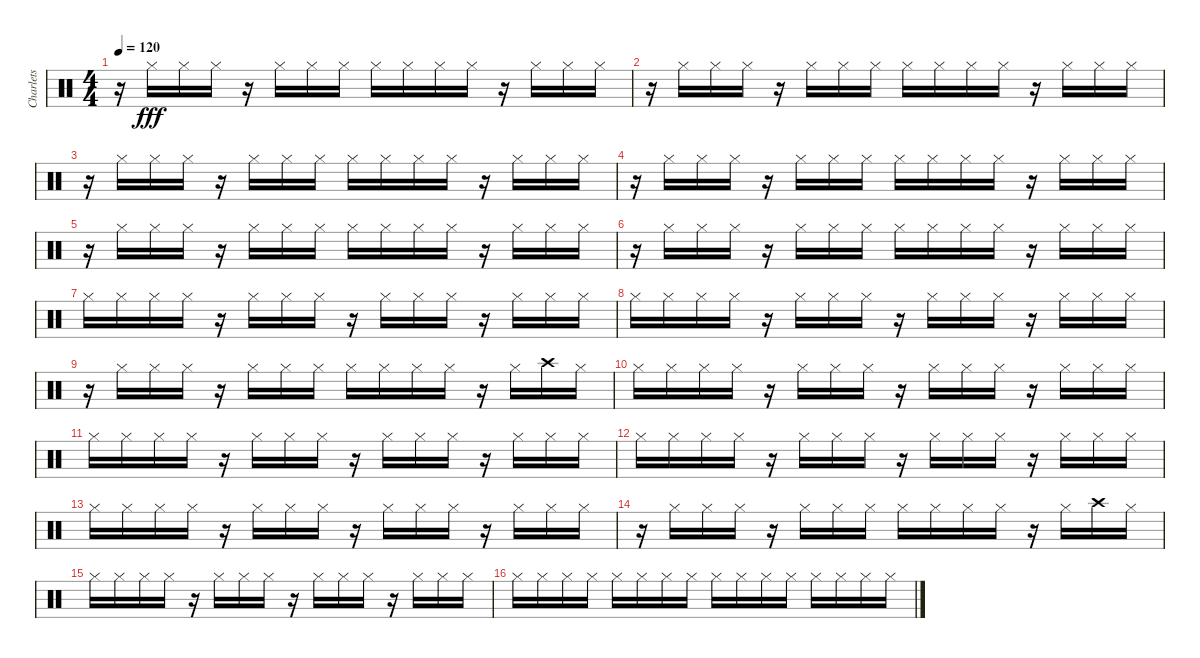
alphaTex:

\track ("Charlets" "Charlets") {instrument percussion}
\staff {score}
\articulation defaults
\ts (4 4)
\tempo 120
\clef neutral
\ks c
r.16{dy fff} "Hi-Hat (closed)".16 "Hi-Hat (closed)".16 "Hi-Hat (closed)".16 r.16 "Hi-Hat (closed)".16 "Hi-Hat (closed)".16 "Hi-Hat (closed)".16 "Hi-Hat (closed)".16 "Hi-Hat (closed)".16 "Hi-Hat (closed)".16 "Hi-Hat (closed)".16 r.16 "Hi-Hat (closed)".16 "Hi-Hat (closed)".16 "Hi-Hat (closed)".16 |
r.16 "Hi-Hat (closed)".16 "Hi-Hat (closed)".16 "Hi-Hat (closed)".16 r.16 "Hi-Hat (closed)".16 "Hi-Hat (closed)".16 "Hi-Hat (closed)".16 "Hi-Hat (closed)".16 "Hi-Hat (closed)".16 "Hi-Hat (closed)".16 "Hi-Hat (closed)".16 r.16 "Hi-Hat (closed)".16 "Hi-Hat (closed)".16 "Hi-Hat (closed)".16 |
r.16 "Hi-Hat (closed)".16 "Hi-Hat (closed)".16 "Hi-Hat (closed)".16 r.16 "Hi-Hat (closed)".16 "Hi-Hat (closed)".16 "Hi-Hat (closed)".16 "Hi-Hat (closed)".16 "Hi-Hat (closed)".16 "Hi-Hat (closed)".16 "Hi-Hat (closed)".16 r.16 "Hi-Hat (closed)".16 "Hi-Hat (closed)".16 "Hi-Hat (closed)".16 |
r.16 "Hi-Hat (closed)".16 "Hi-Hat (closed)".16 "Hi-Hat (closed)".16 r.16 "Hi-Hat (closed)".16 "Hi-Hat (closed)".16 "Hi-Hat (closed)".16 "Hi-Hat (closed)".16 "Hi-Hat (closed)".16 "Hi-Hat (closed)".16 "Hi-Hat (closed)".16 r.16 "Hi-Hat (closed)".16 "Hi-Hat (closed)".16 "Hi-Hat (closed)".16 |
r.16 "Hi-Hat (closed)".16 "Hi-Hat (closed)".16 "Hi-Hat (closed)".16 r.16 "Hi-Hat (closed)".16 "Hi-Hat (closed)".16 "Hi-Hat (closed)".16 "Hi-Hat (closed)".16 "Hi-Hat (closed)".16 "Hi-Hat (closed)".16 "Hi-Hat (closed)".16 r.16 "Hi-Hat (closed)".16 "Hi-Hat (closed)".16 "Hi-Hat (closed)".16 |
r.16 "Hi-Hat (closed)".16 "Hi-Hat (closed)".16 "Hi-Hat (closed)".16 r.16 "Hi-Hat (closed)".16 "Hi-Hat (closed)".16 "Hi-Hat (closed)".16 "Hi-Hat (closed)".16 "Hi-Hat (closed)".16 "Hi-Hat (closed)".16 "Hi-Hat (closed)".16 r.16 "Hi-Hat (closed)".16 "Hi-Hat (closed)".16 "Hi-Hat (closed)".16 |
"Hi-Hat (closed)".16 "Hi-Hat (closed)".16 "Hi-Hat (closed)".16 "Hi-Hat (closed)".16 r.16 "Hi-Hat (closed)".16 "Hi-Hat (closed)".16 "Hi-Hat (closed)".16 r.16 "Hi-Hat (closed)".16 "Hi-Hat (closed)".16 "Hi-Hat (closed)".16 r.16 "Hi-Hat (closed)".16 "Hi-Hat (closed)".16 "Hi-Hat (closed)".16 |
"Hi-Hat (closed)".16 "Hi-Hat (closed)".16 "Hi-Hat (closed)".16 "Hi-Hat (closed)".16 r.16 "Hi-Hat (closed)".16 "Hi-Hat (closed)".16 "Hi-Hat (closed)".16 r.16 "Hi-Hat (closed)".16 "Hi-Hat (closed)".16 "Hi-Hat (closed)".16 r.16 "Hi-Hat (closed)".16 "Hi-Hat (closed)".16 "Hi-Hat (closed)".16 |
r.16 "Hi-Hat (closed)".16 "Hi-Hat (closed)".16 "Hi-Hat (closed)".16 r.16 "Hi-Hat (closed)".16 "Hi-Hat (closed)".16 "Hi-Hat (closed)".16 "Hi-Hat (closed)".16 "Hi-Hat (closed)".16 "Hi-Hat (closed)".16 "Hi-Hat (closed)".16 r.16 "Hi-Hat (closed)".16 "Crash high (hit)".16 "Hi-Hat (closed)".16 |
"Hi-Hat (closed)".16 "Hi-Hat (closed)".16 "Hi-Hat (closed)".16 "Hi-Hat (closed)".16 r.16 "Hi-Hat (closed)".16 "Hi-Hat (closed)".16 "Hi-Hat (closed)".16 r.16 "Hi-Hat (closed)".16 "Hi-Hat (closed)".16 "Hi-Hat (closed)".16 r.16 "Hi-Hat (closed)".16 "Hi-Hat (closed)".16 "Hi-Hat (closed)".16 |
"Hi-Hat (closed)".16 "Hi-Hat (closed)".16 "Hi-Hat (closed)".16 "Hi-Hat (closed)".16 r.16 "Hi-Hat (closed)".16 "Hi-Hat (closed)".16 "Hi-Hat (closed)".16 r.16 "Hi-Hat (closed)".16 "Hi-Hat (closed)".16 "Hi-Hat (closed)".16 r.16 "Hi-Hat (closed)".16 "Hi-Hat (closed)".16 "Hi-Hat (closed)".16 |
"Hi-Hat (closed)".16 "Hi-Hat (closed)".16 "Hi-Hat (closed)".16 "Hi-Hat (closed)".16 r.16 "Hi-Hat (closed)".16 "Hi-Hat (closed)".16 "Hi-Hat (closed)".16 r.16 "Hi-Hat (closed)".16 "Hi-Hat (closed)".16 "Hi-Hat (closed)".16 r.16 "Hi-Hat (closed)".16 "Hi-Hat (closed)".16 "Hi-Hat (closed)".16 |
"Hi-Hat (closed)".16 "Hi-Hat (closed)".16 "Hi-Hat (closed)".16 "Hi-Hat (closed)".16 r.16 "Hi-Hat (closed)".16 "Hi-Hat (closed)".16 "Hi-Hat (closed)".16 r.16 "Hi-Hat (closed)".16 "Hi-Hat (closed)".16 "Hi-Hat (closed)".16 r.16 "Hi-Hat (closed)".16 "Hi-Hat (closed)".16 "Hi-Hat (closed)".16 |
r.16 "Hi-Hat (closed)".16 "Hi-Hat (closed)".16 "Hi-Hat (closed)".16 r.16 "Hi-Hat (closed)".16 "Hi-Hat (closed)".16 "Hi-Hat (closed)".16 "Hi-Hat (closed)".16 "Hi-Hat (closed)".16 "Hi-Hat (closed)".16 "Hi-Hat (closed)".16 r.16 "Hi-Hat (closed)".16 "Crash high (hit)".16 "Hi-Hat (closed)".16 |
"Hi-Hat (closed)".16 "Hi-Hat (closed)".16 "Hi-Hat (closed)".16 "Hi-Hat (closed)".16 r.16 "Hi-Hat (closed)".16 "Hi-Hat (closed)".16 "Hi-Hat (closed)".16 r.16 "Hi-Hat (closed)".16 "Hi-Hat (closed)".16 "Hi-Hat (closed)".16 r.16 "Hi-Hat (closed)".16 "Hi-Hat (closed)".16 "Hi-Hat (closed)".16 |
"Hi-Hat (closed)".16 "Hi-Hat (closed)".16 "Hi-Hat (closed)".16 "Hi-Hat (closed)".16 "Hi-Hat (closed)".16 "Hi-Hat (closed)".16 "Hi-Hat (closed)".16 "Hi-Hat (closed)".16 "Hi-Hat (closed)".16 "Hi-Hat (closed)".16 "Hi-Hat (closed)".16 "Hi-Hat (closed)".16 "Hi-Hat (closed)".16 "Hi-Hat (closed)".16 "Hi-Hat (closed)".16 "Hi-Hat (closed)".16
